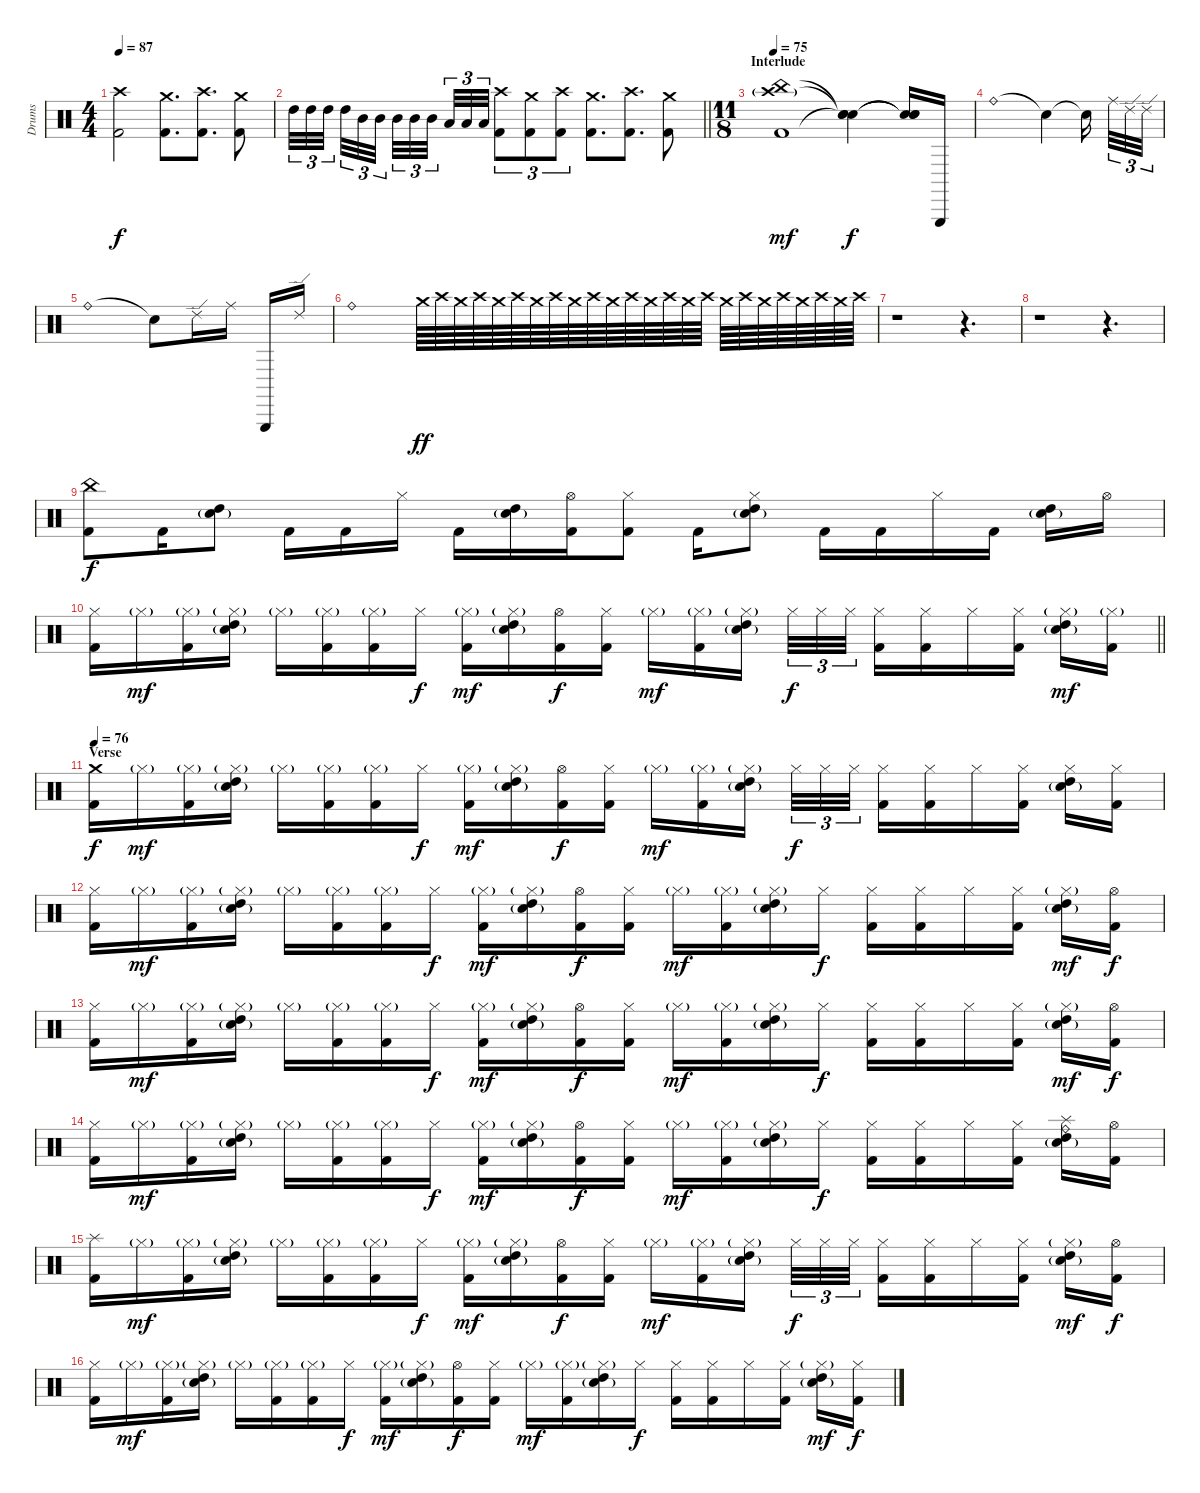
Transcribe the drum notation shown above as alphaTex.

\track ("Drums" "Drums") {instrument percussion}
\staff {score}
\articulation defaults
\ts (4 4)
\section ("" "")
\tempo 87
\clef neutral
\ks c
("Crash high (hit)" "Kick (hit) 2").2{dy f} ("Crash medium (hit)" "Kick (hit) 2").8{d} ("Crash high (hit)" "Kick (hit) 2").8{d} ("Crash medium (hit)" "Kick (hit) 2").8 |
\barLineRight lightlight "High Tom (hit)".32{tu (3 2)} "High Tom (hit)".32{tu (3 2)} "High Tom (hit)".32{tu (3 2) beam splitsecondary} "High Tom (hit)".32{tu (3 2)} "Mid Tom (hit)".32{tu (3 2)} "Mid Tom (hit)".32{tu (3 2) beam splitsecondary} "Mid Tom (hit)".32{tu (3 2)} "Mid Tom (hit)".32{tu (3 2)} "Mid Tom (hit)".32{tu (3 2) beam splitsecondary} "Low Tom (hit)".32{tu (3 2)} "Low Tom (hit)".32{tu (3 2)} "Low Tom (hit)".32{tu (3 2)}
("Crash high (hit)" "Kick (hit) 2").8{tu (3 2)} ("Crash medium (hit)" "Kick (hit) 2").8{tu (3 2)} ("Crash high (hit)" "Kick (hit) 2").8{tu (3 2)} ("Crash medium (hit)" "Kick (hit) 2").8{d} ("Crash high (hit)" "Kick (hit) 2").8{d} ("Crash medium (hit)" "Kick (hit) 2").8 |
\ts (11 8)
\section ("" "Interlude")
\tempo 75
("Crash high (hit)"{g} "China (hit)" "Kick (hit) 2").1{dy mf} ("Snare (hit)"{t} "Snare (hit)"{t} "Snare (hit)"{t}).4{dy f} ("Snare (hit)"{t} "Snare (hit)"{t} "Snare (hit)"{t}).16 "Triangle (hit)".16 |
"Ride (bell)".1 "Snare (hit)"{t}.4 "Snare (hit)"{t}.16{beam splitsecondary} "Ride (middle)".32{tu (3 2)} "Ride (edge) 2".32{tu (3 2)} "Ride (edge) 2".32{tu (3 2)} |
"Ride (bell)".1 "Snare (hit)"{t}.8 "Ride (edge) 2".16 "Ride (middle)".16 "Triangle (hit)".16 "Ride (edge) 2".16 |
"Ride (bell)".1 "Crash medium (hit)".64{dy ff volume 1} "Crash high (hit)".64{volume 14} "Crash medium (hit)".64 "Crash high (hit)".64 "Crash medium (hit)".64 "Crash high (hit)".64 "Crash medium (hit)".64 "Crash high (hit)".64 "Crash medium (hit)".64 "Crash high (hit)".64 "Crash medium (hit)".64 "Crash high (hit)".64 "Crash medium (hit)".64 "Crash high (hit)".64 "Crash medium (hit)".64 "Crash high (hit)".64 "Crash medium (hit)".64 "Crash high (hit)".64 "Crash medium (hit)".64 "Crash high (hit)".64 "Crash medium (hit)".64 "Crash high (hit)".64 "Crash medium (hit)".64 "Crash high (hit)".64 |
r.1 r.4{d} |
r.1 r.4{d} |
("China (hit)" "Kick (hit) 2").8{dy f} "Kick (hit) 2".16 ("High Tom (hit)" "Snare (hit) 2"{g}).8 "Kick (hit) 2".16 "Kick (hit) 2".16 "Hi-Hat (closed)".16 "Kick (hit) 2".16 ("High Tom (hit)" "Snare (hit) 2"{g}).16 ("Hi-Hat (open)" "Kick (hit) 2").16 ("Hi-Hat (closed)" "Kick (hit) 2").8 "Kick (hit) 2".16 ("Hi-Hat (closed)" "High Tom (hit)" "Snare (hit) 2"{g}).8 "Kick (hit) 2".16 "Kick (hit) 2".16 "Hi-Hat (closed)".16 "Kick (hit) 2".16 ("High Tom (hit)" "Snare (hit) 2"{g}).16 "Hi-Hat (open)".16 |
\barLineRight lightlight
("Hi-Hat (closed)" "Kick (hit) 2").16 "Hi-Hat (closed)"{g}.16{dy mf} ("Hi-Hat (closed)"{g} "Kick (hit) 2").16 ("Hi-Hat (closed)"{g} "High Tom (hit)" "Snare (hit) 2"{g}).16 "Hi-Hat (closed)"{g}.16 ("Hi-Hat (closed)"{g} "Kick (hit) 2").16 ("Hi-Hat (closed)"{g} "Kick (hit) 2").16 "Hi-Hat (closed)".16{dy f} ("Hi-Hat (closed)"{g} "Kick (hit) 2").16{dy mf} ("Hi-Hat (closed)"{g} "High Tom (hit)" "Snare (hit) 2"{g}).16 ("Hi-Hat (open)" "Kick (hit) 2").16{dy f} ("Hi-Hat (closed)" "Kick (hit) 2").16 "Hi-Hat (closed)"{g}.16{dy mf} ("Hi-Hat (closed)"{g} "Kick (hit) 2").16 ("Hi-Hat (closed)"{g} "High Tom (hit)" "Snare (hit) 2"{g}).16{beam splitsecondary} "Hi-Hat (closed)".32{tu (3 2) dy f} "Hi-Hat (closed)".32{tu (3 2)} "Hi-Hat (closed)".32{tu (3 2)} ("Hi-Hat (closed)" "Kick (hit) 2").16 ("Hi-Hat (closed)" "Kick (hit) 2").16 "Hi-Hat (closed)".16 ("Hi-Hat (closed)" "Kick (hit) 2").16 ("Hi-Hat (closed)"{g} "High Tom (hit)" "Snare (hit) 2"{g}).16{dy mf} ("Hi-Hat (closed)"{g} "Kick (hit) 2").16 |
\section ("" "Verse")
\tempo 76
("Crash medium (hit)" "Kick (hit) 2").16{dy f} "Hi-Hat (closed)"{g}.16{dy mf} ("Hi-Hat (closed)"{g} "Kick (hit) 2").16 ("Hi-Hat (closed)"{g} "High Tom (hit)" "Snare (hit) 2"{g}).16 "Hi-Hat (closed)"{g}.16 ("Hi-Hat (closed)"{g} "Kick (hit) 2").16 ("Hi-Hat (closed)"{g} "Kick (hit) 2").16 "Hi-Hat (closed)".16{dy f} ("Hi-Hat (closed)"{g} "Kick (hit) 2").16{dy mf} ("Hi-Hat (closed)"{g} "High Tom (hit)" "Snare (hit) 2"{g}).16 ("Hi-Hat (open)" "Kick (hit) 2").16{dy f} ("Hi-Hat (closed)" "Kick (hit) 2").16 "Hi-Hat (closed)"{g}.16{dy mf} ("Hi-Hat (closed)"{g} "Kick (hit) 2").16 ("Hi-Hat (closed)"{g} "High Tom (hit)" "Snare (hit) 2"{g}).16{beam splitsecondary} "Hi-Hat (closed)".32{tu (3 2) dy f} "Hi-Hat (closed)".32{tu (3 2)} "Hi-Hat (closed)".32{tu (3 2)} ("Hi-Hat (closed)" "Kick (hit) 2").16 ("Hi-Hat (closed)" "Kick (hit) 2").16 "Hi-Hat (closed)".16 ("Hi-Hat (closed)" "Kick (hit) 2").16 ("Hi-Hat (closed)" "High Tom (hit)" "Snare (hit) 2"{g}).16 ("Hi-Hat (closed)" "Kick (hit) 2").16 |
("Hi-Hat (closed)" "Kick (hit) 2").16 "Hi-Hat (closed)"{g}.16{dy mf} ("Hi-Hat (closed)"{g} "Kick (hit) 2").16 ("Hi-Hat (closed)"{g} "High Tom (hit)" "Snare (hit) 2"{g}).16 "Hi-Hat (closed)"{g}.16 ("Hi-Hat (closed)"{g} "Kick (hit) 2").16 ("Hi-Hat (closed)"{g} "Kick (hit) 2").16 "Hi-Hat (closed)".16{dy f} ("Hi-Hat (closed)"{g} "Kick (hit) 2").16{dy mf} ("Hi-Hat (closed)"{g} "High Tom (hit)" "Snare (hit) 2"{g}).16 ("Hi-Hat (open)" "Kick (hit) 2").16{dy f} ("Hi-Hat (closed)" "Kick (hit) 2").16 "Hi-Hat (closed)"{g}.16{dy mf} ("Hi-Hat (closed)"{g} "Kick (hit) 2").16 ("Hi-Hat (closed)"{g} "High Tom (hit)" "Snare (hit) 2"{g}).16 "Hi-Hat (closed)".16{dy f} ("Hi-Hat (closed)" "Kick (hit) 2").16 ("Hi-Hat (closed)" "Kick (hit) 2").16 "Hi-Hat (closed)".16 ("Hi-Hat (closed)" "Kick (hit) 2").16 ("Hi-Hat (closed)"{g} "High Tom (hit)" "Snare (hit) 2"{g}).16{dy mf} ("Hi-Hat (open)" "Kick (hit) 2").16{dy f} |
("Hi-Hat (closed)" "Kick (hit) 2").16 "Hi-Hat (closed)"{g}.16{dy mf} ("Hi-Hat (closed)"{g} "Kick (hit) 2").16 ("Hi-Hat (closed)"{g} "High Tom (hit)" "Snare (hit) 2"{g}).16 "Hi-Hat (closed)"{g}.16 ("Hi-Hat (closed)"{g} "Kick (hit) 2").16 ("Hi-Hat (closed)"{g} "Kick (hit) 2").16 "Hi-Hat (closed)".16{dy f} ("Hi-Hat (closed)"{g} "Kick (hit) 2").16{dy mf} ("Hi-Hat (closed)"{g} "High Tom (hit)" "Snare (hit) 2"{g}).16 ("Hi-Hat (open)" "Kick (hit) 2").16{dy f} ("Hi-Hat (closed)" "Kick (hit) 2").16 "Hi-Hat (closed)"{g}.16{dy mf} ("Hi-Hat (closed)"{g} "Kick (hit) 2").16 ("Hi-Hat (closed)"{g} "High Tom (hit)" "Snare (hit) 2"{g}).16 "Hi-Hat (closed)".16{dy f} ("Hi-Hat (closed)" "Kick (hit) 2").16 ("Hi-Hat (closed)" "Kick (hit) 2").16 "Hi-Hat (closed)".16 ("Hi-Hat (closed)" "Kick (hit) 2").16 ("Hi-Hat (closed)"{g} "High Tom (hit)" "Snare (hit) 2"{g}).16{dy mf} ("Hi-Hat (open)" "Kick (hit) 2").16{dy f} |
("Hi-Hat (closed)" "Kick (hit) 2").16 "Hi-Hat (closed)"{g}.16{dy mf} ("Hi-Hat (closed)"{g} "Kick (hit) 2").16 ("Hi-Hat (closed)"{g} "High Tom (hit)" "Snare (hit) 2"{g}).16 "Hi-Hat (closed)"{g}.16 ("Hi-Hat (closed)"{g} "Kick (hit) 2").16 ("Hi-Hat (closed)"{g} "Kick (hit) 2").16 "Hi-Hat (closed)".16{dy f} ("Hi-Hat (closed)"{g} "Kick (hit) 2").16{dy mf} ("Hi-Hat (closed)"{g} "High Tom (hit)" "Snare (hit) 2"{g}).16 ("Hi-Hat (open)" "Kick (hit) 2").16{dy f} ("Hi-Hat (closed)" "Kick (hit) 2").16 "Hi-Hat (closed)"{g}.16{dy mf} ("Hi-Hat (closed)"{g} "Kick (hit) 2").16 ("Hi-Hat (closed)"{g} "High Tom (hit)" "Snare (hit) 2"{g}).16 "Hi-Hat (closed)".16{dy f} ("Hi-Hat (closed)" "Kick (hit) 2").16 ("Hi-Hat (closed)" "Kick (hit) 2").16 "Hi-Hat (closed)".16 ("Hi-Hat (closed)" "Kick (hit) 2").16 ("Ride (bell)" "Splash (hit)" "High Tom (hit)" "Snare (hit) 2"{g}).16 ("Hi-Hat (open)" "Kick (hit) 2").16 |
("Splash (hit)" "Kick (hit) 2").16 "Hi-Hat (closed)"{g}.16{dy mf} ("Hi-Hat (closed)"{g} "Kick (hit) 2").16 ("Hi-Hat (closed)"{g} "High Tom (hit)" "Snare (hit) 2"{g}).16 "Hi-Hat (closed)"{g}.16 ("Hi-Hat (closed)"{g} "Kick (hit) 2").16 ("Hi-Hat (closed)"{g} "Kick (hit) 2").16 "Hi-Hat (closed)".16{dy f} ("Hi-Hat (closed)"{g} "Kick (hit) 2").16{dy mf} ("Hi-Hat (closed)"{g} "High Tom (hit)" "Snare (hit) 2"{g}).16 ("Hi-Hat (open)" "Kick (hit) 2").16{dy f} ("Hi-Hat (closed)" "Kick (hit) 2").16 "Hi-Hat (closed)"{g}.16{dy mf} ("Hi-Hat (closed)"{g} "Kick (hit) 2").16 ("Hi-Hat (closed)"{g} "High Tom (hit)" "Snare (hit) 2"{g}).16{beam splitsecondary} "Hi-Hat (closed)".32{tu (3 2) dy f} "Hi-Hat (closed)".32{tu (3 2)} "Hi-Hat (closed)".32{tu (3 2)} ("Hi-Hat (closed)" "Kick (hit) 2").16 ("Hi-Hat (closed)" "Kick (hit) 2").16 "Hi-Hat (closed)".16 ("Hi-Hat (closed)" "Kick (hit) 2").16 ("Hi-Hat (closed)"{g} "High Tom (hit)" "Snare (hit) 2"{g}).16{dy mf} ("Hi-Hat (open)" "Kick (hit) 2").16{dy f} |
("Hi-Hat (closed)" "Kick (hit) 2").16 "Hi-Hat (closed)"{g}.16{dy mf} ("Hi-Hat (closed)"{g} "Kick (hit) 2").16 ("Hi-Hat (closed)"{g} "High Tom (hit)" "Snare (hit) 2"{g}).16 "Hi-Hat (closed)"{g}.16 ("Hi-Hat (closed)"{g} "Kick (hit) 2").16 ("Hi-Hat (closed)"{g} "Kick (hit) 2").16 "Hi-Hat (closed)".16{dy f} ("Hi-Hat (closed)"{g} "Kick (hit) 2").16{dy mf} ("Hi-Hat (closed)"{g} "High Tom (hit)" "Snare (hit) 2"{g}).16 ("Hi-Hat (open)" "Kick (hit) 2").16{dy f} ("Hi-Hat (closed)" "Kick (hit) 2").16 "Hi-Hat (closed)"{g}.16{dy mf} ("Hi-Hat (closed)"{g} "Kick (hit) 2").16 ("Hi-Hat (closed)"{g} "High Tom (hit)" "Snare (hit) 2"{g}).16 "Hi-Hat (closed)".16{dy f} ("Hi-Hat (closed)" "Kick (hit) 2").16 ("Hi-Hat (closed)" "Kick (hit) 2").16 "Hi-Hat (closed)".16 ("Hi-Hat (closed)" "Kick (hit) 2").16 ("Hi-Hat (closed)"{g} "High Tom (hit)" "Snare (hit) 2"{g}).16{dy mf} ("Hi-Hat (closed)" "Kick (hit) 2").16{dy f}
